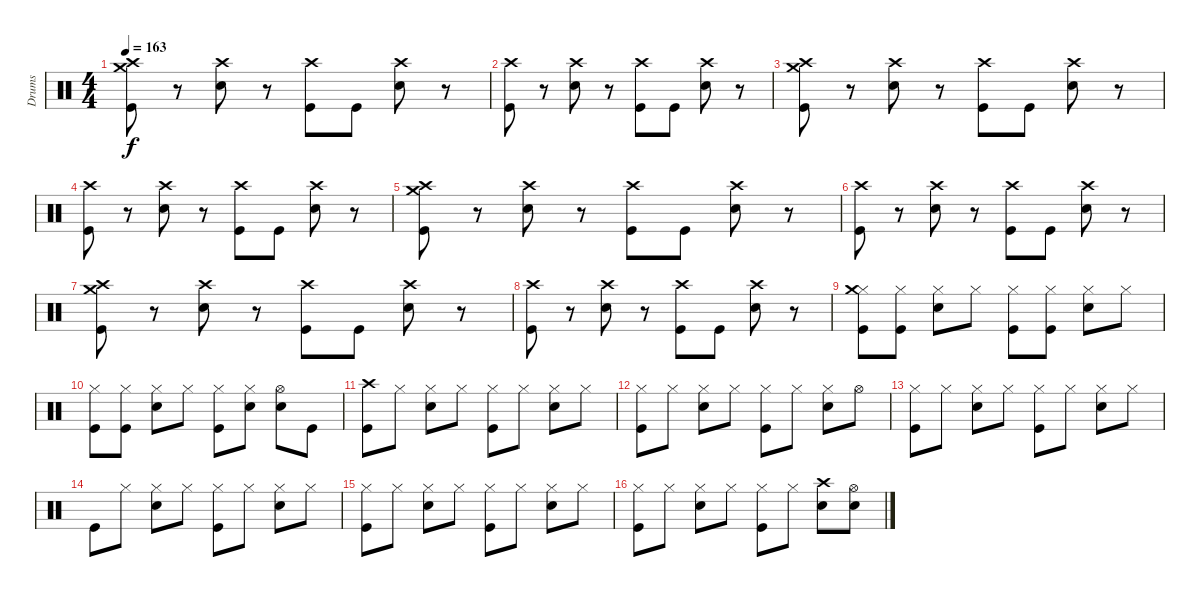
\track ("Drums" "Drums") {instrument percussion}
\staff {score}
\articulation defaults
\ts (4 4)
\tempo 163
\clef neutral
\ks c
("Crash high (hit)" "Crash medium (hit)" "Kick (hit)").8{dy f} r.8 ("Crash high (hit)" "Electric Snare (hit)").8 r.8 ("Crash high (hit)" "Kick (hit)").8 "Kick (hit)".8 ("Crash high (hit)" "Electric Snare (hit)").8 r.8 |
("Crash high (hit)" "Kick (hit)").8 r.8 ("Crash high (hit)" "Electric Snare (hit)").8 r.8 ("Crash high (hit)" "Kick (hit)").8 "Kick (hit)".8 ("Crash high (hit)" "Electric Snare (hit)").8 r.8 |
("Crash high (hit)" "Crash medium (hit)" "Kick (hit)").8 r.8 ("Crash high (hit)" "Electric Snare (hit)").8 r.8 ("Crash high (hit)" "Kick (hit)").8 "Kick (hit)".8 ("Crash high (hit)" "Electric Snare (hit)").8 r.8 |
("Crash high (hit)" "Kick (hit)").8 r.8 ("Crash high (hit)" "Electric Snare (hit)").8 r.8 ("Crash high (hit)" "Kick (hit)").8 "Kick (hit)".8 ("Crash high (hit)" "Electric Snare (hit)").8 r.8 |
("Crash high (hit)" "Crash medium (hit)" "Kick (hit)").8 r.8 ("Crash high (hit)" "Electric Snare (hit)").8 r.8 ("Crash high (hit)" "Kick (hit)").8 "Kick (hit)".8 ("Crash high (hit)" "Electric Snare (hit)").8 r.8 |
("Crash high (hit)" "Kick (hit)").8 r.8 ("Crash high (hit)" "Electric Snare (hit)").8 r.8 ("Crash high (hit)" "Kick (hit)").8 "Kick (hit)".8 ("Crash high (hit)" "Electric Snare (hit)").8 r.8 |
("Crash high (hit)" "Crash medium (hit)" "Kick (hit)").8 r.8 ("Crash high (hit)" "Electric Snare (hit)").8 r.8 ("Crash high (hit)" "Kick (hit)").8 "Kick (hit)".8 ("Crash high (hit)" "Electric Snare (hit)").8 r.8 |
("Crash high (hit)" "Kick (hit)").8 r.8 ("Crash high (hit)" "Electric Snare (hit)").8 r.8 ("Crash high (hit)" "Kick (hit)").8 "Kick (hit)".8 ("Crash high (hit)" "Electric Snare (hit)").8 r.8 |
("Hi-Hat (closed)" "Crash medium (hit)" "Kick (hit)").8 ("Hi-Hat (closed)" "Kick (hit)").8 ("Hi-Hat (closed)" "Electric Snare (hit)").8 "Hi-Hat (closed)".8 ("Hi-Hat (closed)" "Kick (hit)").8 ("Hi-Hat (closed)" "Kick (hit)").8 ("Hi-Hat (closed)" "Electric Snare (hit)").8 "Hi-Hat (closed)".8 |
("Hi-Hat (closed)" "Kick (hit)").8 ("Hi-Hat (closed)" "Kick (hit)").8 ("Hi-Hat (closed)" "Electric Snare (hit)").8 "Hi-Hat (closed)".8 ("Hi-Hat (closed)" "Kick (hit)").8 ("Hi-Hat (closed)" "Electric Snare (hit)").8 ("Hi-Hat (open)" "Electric Snare (hit)").8 "Kick (hit)".8 |
("Crash high (hit)" "Kick (hit)").8 "Hi-Hat (closed)".8 ("Hi-Hat (closed)" "Electric Snare (hit)").8 "Hi-Hat (closed)".8 ("Hi-Hat (closed)" "Kick (hit)").8 "Hi-Hat (closed)".8 ("Hi-Hat (closed)" "Electric Snare (hit)").8 "Hi-Hat (closed)".8 |
("Hi-Hat (closed)" "Kick (hit)").8 "Hi-Hat (closed)".8 ("Hi-Hat (closed)" "Electric Snare (hit)").8 "Hi-Hat (closed)".8 ("Hi-Hat (closed)" "Kick (hit)").8 "Hi-Hat (closed)".8 ("Hi-Hat (closed)" "Electric Snare (hit)").8 "Hi-Hat (open)".8 |
("Hi-Hat (closed)" "Kick (hit)").8 "Hi-Hat (closed)".8 ("Hi-Hat (closed)" "Electric Snare (hit)").8 "Hi-Hat (closed)".8 ("Hi-Hat (closed)" "Kick (hit)").8 "Hi-Hat (closed)".8 ("Hi-Hat (closed)" "Electric Snare (hit)").8 "Hi-Hat (closed)".8 |
"Kick (hit)".8 "Hi-Hat (closed)".8 ("Hi-Hat (closed)" "Electric Snare (hit)").8 "Hi-Hat (closed)".8 ("Hi-Hat (closed)" "Kick (hit)").8 "Hi-Hat (closed)".8 ("Hi-Hat (closed)" "Electric Snare (hit)").8 "Hi-Hat (closed)".8 |
("Hi-Hat (closed)" "Kick (hit)").8 "Hi-Hat (closed)".8 ("Hi-Hat (closed)" "Electric Snare (hit)").8 "Hi-Hat (closed)".8 ("Hi-Hat (closed)" "Kick (hit)").8 "Hi-Hat (closed)".8 ("Hi-Hat (closed)" "Electric Snare (hit)").8 "Hi-Hat (closed)".8 |
("Hi-Hat (closed)" "Kick (hit)").8 "Hi-Hat (closed)".8 ("Hi-Hat (closed)" "Electric Snare (hit)").8 "Hi-Hat (closed)".8 ("Hi-Hat (closed)" "Kick (hit)").8 "Hi-Hat (closed)".8 ("Crash high (hit)" "Electric Snare (hit)").8 ("Hi-Hat (open)" "Electric Snare (hit)").8
